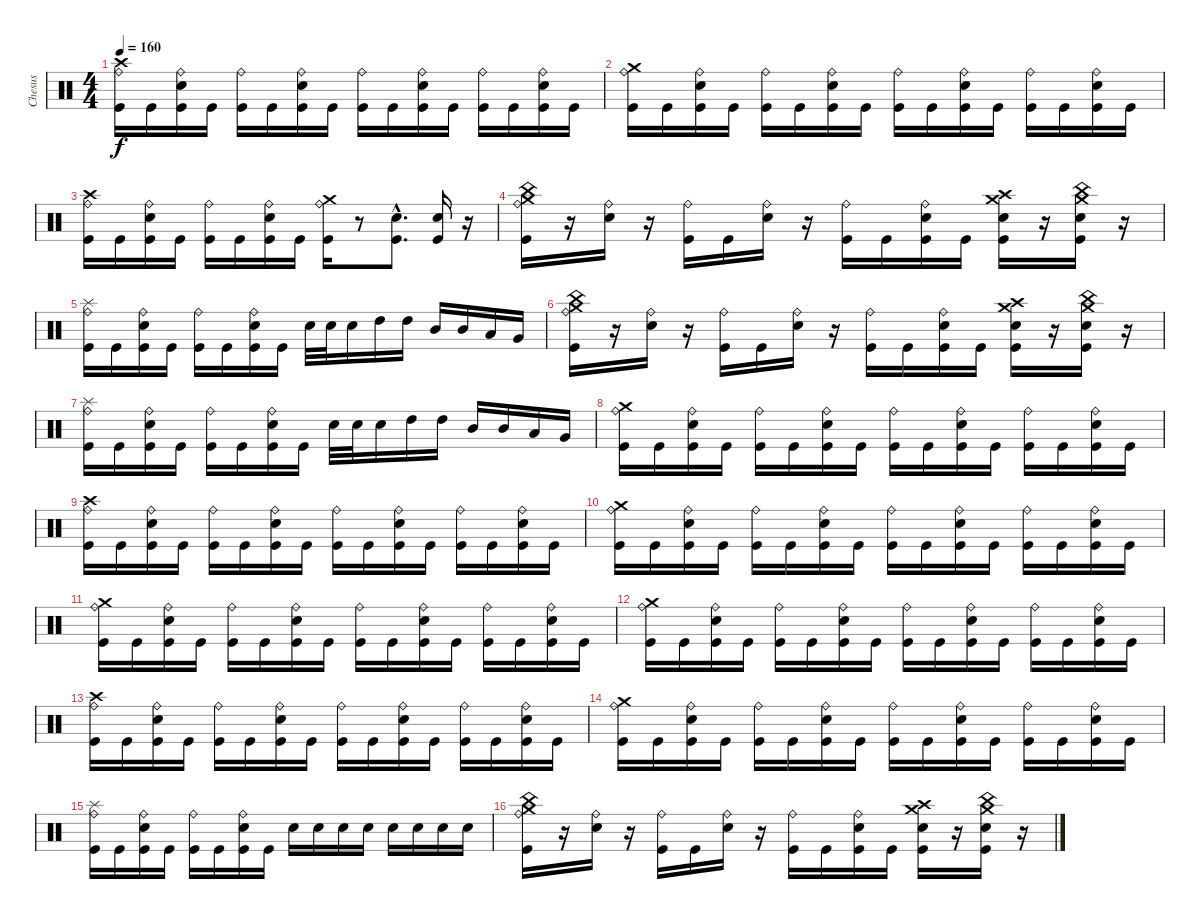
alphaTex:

\track ("Chesus" "Chesus") {instrument percussion}
\staff {score}
\articulation defaults
\ts (4 4)
\tempo 160
\clef neutral
\ks c
("Crash high (hit)" "Ride (bell)" "Kick (hit)").16{dy f} "Kick (hit)".16 ("Ride (bell)" "Snare (hit) 2" "Kick (hit)").16 "Kick (hit)".16 ("Ride (bell)" "Kick (hit)").16 "Kick (hit)".16 ("Ride (bell)" "Snare (hit) 2" "Kick (hit)").16 "Kick (hit)".16 ("Ride (bell)" "Kick (hit)").16 "Kick (hit)".16 ("Ride (bell)" "Snare (hit) 2" "Kick (hit)").16 "Kick (hit)".16 ("Ride (bell)" "Kick (hit)").16 "Kick (hit)".16 ("Ride (bell)" "Snare (hit) 2" "Kick (hit)").16 "Kick (hit)".16 |
("Crash medium (hit)" "Ride (bell)" "Kick (hit)").16 "Kick (hit)".16 ("Ride (bell)" "Snare (hit) 2" "Kick (hit)").16 "Kick (hit)".16 ("Ride (bell)" "Kick (hit)").16 "Kick (hit)".16 ("Ride (bell)" "Snare (hit) 2" "Kick (hit)").16 "Kick (hit)".16 ("Ride (bell)" "Kick (hit)").16 "Kick (hit)".16 ("Ride (bell)" "Snare (hit) 2" "Kick (hit)").16 "Kick (hit)".16 ("Ride (bell)" "Kick (hit)").16 "Kick (hit)".16 ("Ride (bell)" "Snare (hit) 2" "Kick (hit)").16 "Kick (hit)".16 |
("Crash high (hit)" "Ride (bell)" "Kick (hit)").16 "Kick (hit)".16 ("Ride (bell)" "Snare (hit) 2" "Kick (hit)").16 "Kick (hit)".16 ("Ride (bell)" "Kick (hit)").16 "Kick (hit)".16 ("Ride (bell)" "Snare (hit) 2" "Kick (hit)").16 "Kick (hit)".16 ("Crash medium (hit)" "Ride (bell)" "Kick (hit)").16 r.8 ("Snare (hit) 2"{hac} "Kick (hit)"{hac}).8{d} ("Snare (hit) 2" "Kick (hit)").16 r.16 |
("Crash medium (hit)" "China (hit)" "Ride (bell)" "Kick (hit)").16 r.16 ("Ride (bell)" "Snare (hit) 2").16 r.16 ("Ride (bell)" "Kick (hit)").16 "Kick (hit)".16 ("Ride (bell)" "Snare (hit) 2").16 r.16 ("Ride (bell)" "Kick (hit)").16 "Kick (hit)".16 ("Ride (bell)" "Snare (hit) 2" "Kick (hit)").16 "Kick (hit)".16 ("Crash medium (hit)" "Crash high (hit)" "Snare (hit) 2" "Kick (hit)").16 r.16 ("Crash medium (hit)" "China (hit)" "Snare (hit) 2" "Kick (hit)").16 r.16 |
("Splash (hit)" "Ride (bell)" "Kick (hit)").16 "Kick (hit)".16 ("Ride (bell)" "Snare (hit) 2" "Kick (hit)").16 "Kick (hit)".16 ("Ride (bell)" "Kick (hit)").16 "Kick (hit)".16 ("Ride (bell)" "Snare (hit) 2" "Kick (hit)").16 "Kick (hit)".16 "Snare (hit) 2".32 "Snare (hit) 2".32 "Snare (hit) 2".16 "High Tom (hit)".16 "High Tom (hit)".16 "Mid Tom (hit)".16 "Mid Tom (hit)".16 "Low Tom (hit)".16 "Very Low Tom (hit)".16 |
("Crash medium (hit)" "China (hit)" "Ride (bell)" "Kick (hit)").16 r.16 ("Ride (bell)" "Snare (hit) 2").16 r.16 ("Ride (bell)" "Kick (hit)").16 "Kick (hit)".16 ("Ride (bell)" "Snare (hit) 2").16 r.16 ("Ride (bell)" "Kick (hit)").16 "Kick (hit)".16 ("Ride (bell)" "Snare (hit) 2" "Kick (hit)").16 "Kick (hit)".16 ("Crash medium (hit)" "Crash high (hit)" "Snare (hit) 2" "Kick (hit)").16 r.16 ("Crash medium (hit)" "China (hit)" "Snare (hit) 2" "Kick (hit)").16 r.16 |
("Splash (hit)" "Ride (bell)" "Kick (hit)").16 "Kick (hit)".16 ("Ride (bell)" "Snare (hit) 2" "Kick (hit)").16 "Kick (hit)".16 ("Ride (bell)" "Kick (hit)").16 "Kick (hit)".16 ("Ride (bell)" "Snare (hit) 2" "Kick (hit)").16 "Kick (hit)".16 "Snare (hit) 2".32 "Snare (hit) 2".32 "Snare (hit) 2".16 "High Tom (hit)".16 "High Tom (hit)".16 "Mid Tom (hit)".16 "Mid Tom (hit)".16 "Low Tom (hit)".16 "Very Low Tom (hit)".16 |
("Crash medium (hit)" "Ride (bell)" "Kick (hit)").16 "Kick (hit)".16 ("Ride (bell)" "Snare (hit) 2" "Kick (hit)").16 "Kick (hit)".16 ("Ride (bell)" "Kick (hit)").16 "Kick (hit)".16 ("Ride (bell)" "Snare (hit) 2" "Kick (hit)").16 "Kick (hit)".16 ("Ride (bell)" "Kick (hit)").16 "Kick (hit)".16 ("Ride (bell)" "Snare (hit) 2" "Kick (hit)").16 "Kick (hit)".16 ("Ride (bell)" "Kick (hit)").16 "Kick (hit)".16 ("Ride (bell)" "Snare (hit) 2" "Kick (hit)").16 "Kick (hit)".16 |
("Crash high (hit)" "Ride (bell)" "Kick (hit)").16 "Kick (hit)".16 ("Ride (bell)" "Snare (hit) 2" "Kick (hit)").16 "Kick (hit)".16 ("Ride (bell)" "Kick (hit)").16 "Kick (hit)".16 ("Ride (bell)" "Snare (hit) 2" "Kick (hit)").16 "Kick (hit)".16 ("Ride (bell)" "Kick (hit)").16 "Kick (hit)".16 ("Ride (bell)" "Snare (hit) 2" "Kick (hit)").16 "Kick (hit)".16 ("Ride (bell)" "Kick (hit)").16 "Kick (hit)".16 ("Ride (bell)" "Snare (hit) 2" "Kick (hit)").16 "Kick (hit)".16 |
("Crash medium (hit)" "Ride (bell)" "Kick (hit)").16 "Kick (hit)".16 ("Ride (bell)" "Snare (hit) 2" "Kick (hit)").16 "Kick (hit)".16 ("Ride (bell)" "Kick (hit)").16 "Kick (hit)".16 ("Ride (bell)" "Snare (hit) 2" "Kick (hit)").16 "Kick (hit)".16 ("Ride (bell)" "Kick (hit)").16 "Kick (hit)".16 ("Ride (bell)" "Snare (hit) 2" "Kick (hit)").16 "Kick (hit)".16 ("Ride (bell)" "Kick (hit)").16 "Kick (hit)".16 ("Ride (bell)" "Snare (hit) 2" "Kick (hit)").16 "Kick (hit)".16 |
("Crash medium (hit)" "Ride (bell)" "Kick (hit)").16 "Kick (hit)".16 ("Ride (bell)" "Snare (hit) 2" "Kick (hit)").16 "Kick (hit)".16 ("Ride (bell)" "Kick (hit)").16 "Kick (hit)".16 ("Ride (bell)" "Snare (hit) 2" "Kick (hit)").16 "Kick (hit)".16 ("Ride (bell)" "Kick (hit)").16 "Kick (hit)".16 ("Ride (bell)" "Snare (hit) 2" "Kick (hit)").16 "Kick (hit)".16 ("Ride (bell)" "Kick (hit)").16 "Kick (hit)".16 ("Ride (bell)" "Snare (hit) 2" "Kick (hit)").16 "Kick (hit)".16 |
("Crash medium (hit)" "Ride (bell)" "Kick (hit)").16 "Kick (hit)".16 ("Ride (bell)" "Snare (hit) 2" "Kick (hit)").16 "Kick (hit)".16 ("Ride (bell)" "Kick (hit)").16 "Kick (hit)".16 ("Ride (bell)" "Snare (hit) 2" "Kick (hit)").16 "Kick (hit)".16 ("Ride (bell)" "Kick (hit)").16 "Kick (hit)".16 ("Ride (bell)" "Snare (hit) 2" "Kick (hit)").16 "Kick (hit)".16 ("Ride (bell)" "Kick (hit)").16 "Kick (hit)".16 ("Ride (bell)" "Snare (hit) 2" "Kick (hit)").16 "Kick (hit)".16 |
("Crash high (hit)" "Ride (bell)" "Kick (hit)").16 "Kick (hit)".16 ("Ride (bell)" "Snare (hit) 2" "Kick (hit)").16 "Kick (hit)".16 ("Ride (bell)" "Kick (hit)").16 "Kick (hit)".16 ("Ride (bell)" "Snare (hit) 2" "Kick (hit)").16 "Kick (hit)".16 ("Ride (bell)" "Kick (hit)").16 "Kick (hit)".16 ("Ride (bell)" "Snare (hit) 2" "Kick (hit)").16 "Kick (hit)".16 ("Ride (bell)" "Kick (hit)").16 "Kick (hit)".16 ("Ride (bell)" "Snare (hit) 2" "Kick (hit)").16 "Kick (hit)".16 |
("Crash medium (hit)" "Ride (bell)" "Kick (hit)").16 "Kick (hit)".16 ("Ride (bell)" "Snare (hit) 2" "Kick (hit)").16 "Kick (hit)".16 ("Ride (bell)" "Kick (hit)").16 "Kick (hit)".16 ("Ride (bell)" "Snare (hit) 2" "Kick (hit)").16 "Kick (hit)".16 ("Ride (bell)" "Kick (hit)").16 "Kick (hit)".16 ("Ride (bell)" "Snare (hit) 2" "Kick (hit)").16 "Kick (hit)".16 ("Ride (bell)" "Kick (hit)").16 "Kick (hit)".16 ("Ride (bell)" "Snare (hit) 2" "Kick (hit)").16 "Kick (hit)".16 |
("Splash (hit)" "Ride (bell)" "Kick (hit)").16 "Kick (hit)".16 ("Ride (bell)" "Snare (hit) 2" "Kick (hit)").16 "Kick (hit)".16 ("Ride (bell)" "Kick (hit)").16 "Kick (hit)".16 ("Ride (bell)" "Snare (hit) 2" "Kick (hit)").16 "Kick (hit)".16 "Snare (hit) 2".16 "Snare (hit) 2".16 "Snare (hit) 2".16 "Snare (hit) 2".16 "Snare (hit) 2".16 "Snare (hit) 2".16 "Snare (hit) 2".16 "Snare (hit) 2".16 |
("Crash medium (hit)" "China (hit)" "Ride (bell)" "Kick (hit)").16 r.16 ("Ride (bell)" "Snare (hit) 2").16 r.16 ("Ride (bell)" "Kick (hit)").16 "Kick (hit)".16 ("Ride (bell)" "Snare (hit) 2").16 r.16 ("Ride (bell)" "Kick (hit)").16 "Kick (hit)".16 ("Ride (bell)" "Snare (hit) 2" "Kick (hit)").16 "Kick (hit)".16 ("Crash medium (hit)" "Crash high (hit)" "Snare (hit) 2" "Kick (hit)").16 r.16 ("Crash medium (hit)" "China (hit)" "Snare (hit) 2" "Kick (hit)").16 r.16
